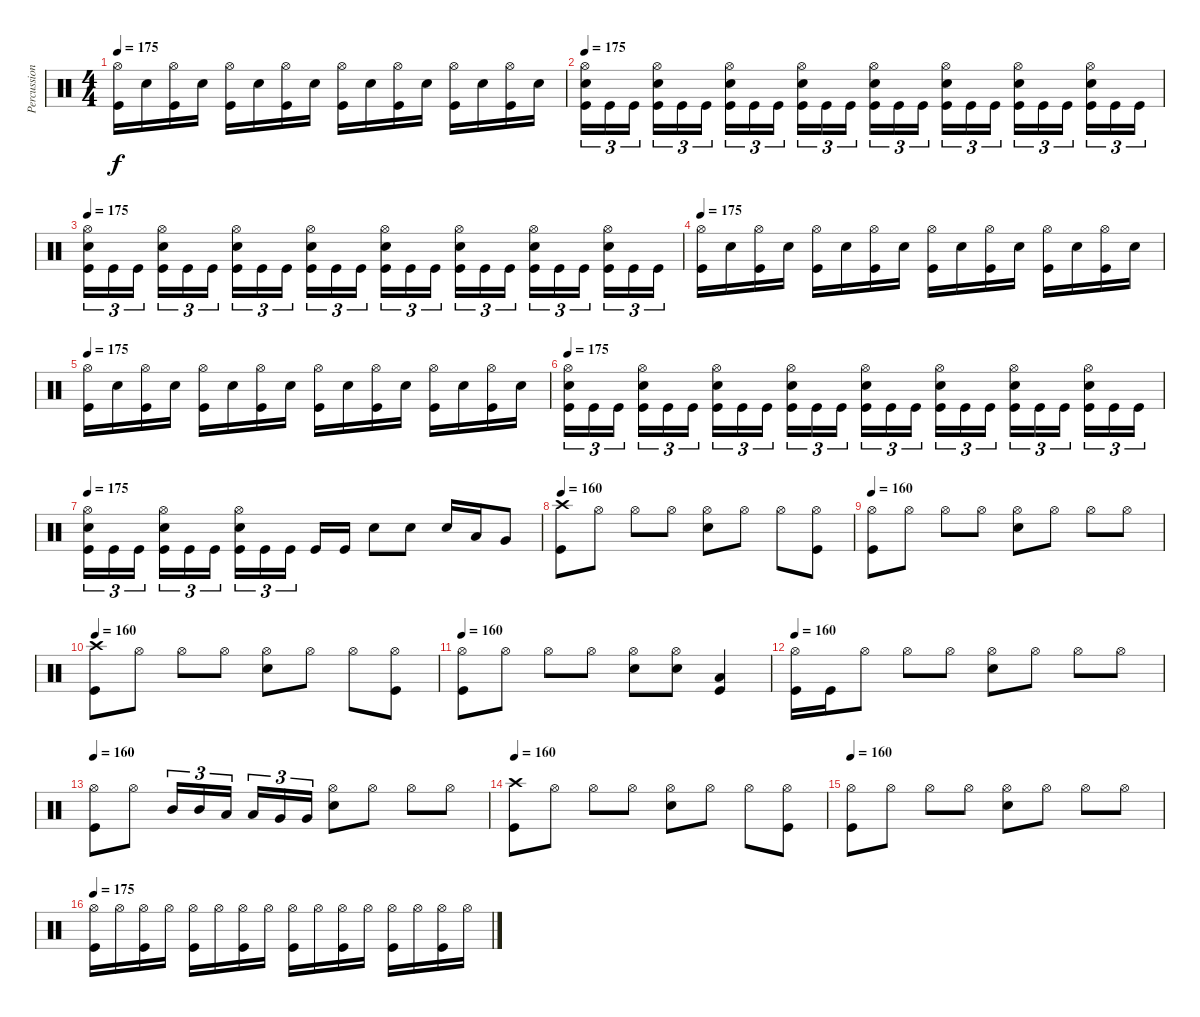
\track ("Percussion" "Percussion") {instrument percussion}
\staff {score}
\articulation defaults
\ts (4 4)
\tempo 175
\clef neutral
\ks c
("Hi-Hat (open)" "Kick (hit)").16{dy f} "Electric Snare (hit)".16 ("Hi-Hat (open)" "Kick (hit)").16 "Electric Snare (hit)".16 ("Hi-Hat (open)" "Kick (hit)").16 "Electric Snare (hit)".16 ("Hi-Hat (open)" "Kick (hit)").16 "Electric Snare (hit)".16 ("Hi-Hat (open)" "Kick (hit)").16 "Electric Snare (hit)".16 ("Hi-Hat (open)" "Kick (hit)").16 "Electric Snare (hit)".16 ("Hi-Hat (open)" "Kick (hit)").16 "Electric Snare (hit)".16 ("Hi-Hat (open)" "Kick (hit)").16 "Electric Snare (hit)".16 |
\tempo 175
("Hi-Hat (open)" "Electric Snare (hit)" "Kick (hit)").16{tu (3 2)} "Kick (hit)".16{tu (3 2)} "Kick (hit)".16{tu (3 2)} ("Hi-Hat (open)" "Electric Snare (hit)" "Kick (hit)").16{tu (3 2)} "Kick (hit)".16{tu (3 2)} "Kick (hit)".16{tu (3 2)} ("Hi-Hat (open)" "Electric Snare (hit)" "Kick (hit)").16{tu (3 2)} "Kick (hit)".16{tu (3 2)} "Kick (hit)".16{tu (3 2)} ("Hi-Hat (open)" "Electric Snare (hit)" "Kick (hit)").16{tu (3 2)} "Kick (hit)".16{tu (3 2)} "Kick (hit)".16{tu (3 2)} ("Hi-Hat (open)" "Electric Snare (hit)" "Kick (hit)").16{tu (3 2)} "Kick (hit)".16{tu (3 2)} "Kick (hit)".16{tu (3 2)} ("Hi-Hat (open)" "Electric Snare (hit)" "Kick (hit)").16{tu (3 2)} "Kick (hit)".16{tu (3 2)} "Kick (hit)".16{tu (3 2)} ("Hi-Hat (open)" "Electric Snare (hit)" "Kick (hit)").16{tu (3 2)} "Kick (hit)".16{tu (3 2)} "Kick (hit)".16{tu (3 2)} ("Hi-Hat (open)" "Electric Snare (hit)" "Kick (hit)").16{tu (3 2)} "Kick (hit)".16{tu (3 2)} "Kick (hit)".16{tu (3 2)} |
\tempo 175
("Hi-Hat (open)" "Electric Snare (hit)" "Kick (hit)").16{tu (3 2)} "Kick (hit)".16{tu (3 2)} "Kick (hit)".16{tu (3 2)} ("Hi-Hat (open)" "Electric Snare (hit)" "Kick (hit)").16{tu (3 2)} "Kick (hit)".16{tu (3 2)} "Kick (hit)".16{tu (3 2)} ("Hi-Hat (open)" "Electric Snare (hit)" "Kick (hit)").16{tu (3 2)} "Kick (hit)".16{tu (3 2)} "Kick (hit)".16{tu (3 2)} ("Hi-Hat (open)" "Electric Snare (hit)" "Kick (hit)").16{tu (3 2)} "Kick (hit)".16{tu (3 2)} "Kick (hit)".16{tu (3 2)} ("Hi-Hat (open)" "Electric Snare (hit)" "Kick (hit)").16{tu (3 2)} "Kick (hit)".16{tu (3 2)} "Kick (hit)".16{tu (3 2)} ("Hi-Hat (open)" "Electric Snare (hit)" "Kick (hit)").16{tu (3 2)} "Kick (hit)".16{tu (3 2)} "Kick (hit)".16{tu (3 2)} ("Hi-Hat (open)" "Electric Snare (hit)" "Kick (hit)").16{tu (3 2)} "Kick (hit)".16{tu (3 2)} "Kick (hit)".16{tu (3 2)} ("Hi-Hat (open)" "Electric Snare (hit)" "Kick (hit)").16{tu (3 2)} "Kick (hit)".16{tu (3 2)} "Kick (hit)".16{tu (3 2)} |
\tempo 175
("Hi-Hat (open)" "Kick (hit)").16 "Electric Snare (hit)".16 ("Hi-Hat (open)" "Kick (hit)").16 "Electric Snare (hit)".16 ("Hi-Hat (open)" "Kick (hit)").16 "Electric Snare (hit)".16 ("Hi-Hat (open)" "Kick (hit)").16 "Electric Snare (hit)".16 ("Hi-Hat (open)" "Kick (hit)").16 "Electric Snare (hit)".16 ("Hi-Hat (open)" "Kick (hit)").16 "Electric Snare (hit)".16 ("Hi-Hat (open)" "Kick (hit)").16 "Electric Snare (hit)".16 ("Hi-Hat (open)" "Kick (hit)").16 "Electric Snare (hit)".16 |
\tempo 175
("Hi-Hat (open)" "Kick (hit)").16 "Electric Snare (hit)".16 ("Hi-Hat (open)" "Kick (hit)").16 "Electric Snare (hit)".16 ("Hi-Hat (open)" "Kick (hit)").16 "Electric Snare (hit)".16 ("Hi-Hat (open)" "Kick (hit)").16 "Electric Snare (hit)".16 ("Hi-Hat (open)" "Kick (hit)").16 "Electric Snare (hit)".16 ("Hi-Hat (open)" "Kick (hit)").16 "Electric Snare (hit)".16 ("Hi-Hat (open)" "Kick (hit)").16 "Electric Snare (hit)".16 ("Hi-Hat (open)" "Kick (hit)").16 "Electric Snare (hit)".16 |
\tempo 175
("Hi-Hat (open)" "Electric Snare (hit)" "Kick (hit)").16{tu (3 2)} "Kick (hit)".16{tu (3 2)} "Kick (hit)".16{tu (3 2)} ("Hi-Hat (open)" "Electric Snare (hit)" "Kick (hit)").16{tu (3 2)} "Kick (hit)".16{tu (3 2)} "Kick (hit)".16{tu (3 2)} ("Hi-Hat (open)" "Electric Snare (hit)" "Kick (hit)").16{tu (3 2)} "Kick (hit)".16{tu (3 2)} "Kick (hit)".16{tu (3 2)} ("Hi-Hat (open)" "Electric Snare (hit)" "Kick (hit)").16{tu (3 2)} "Kick (hit)".16{tu (3 2)} "Kick (hit)".16{tu (3 2)} ("Hi-Hat (open)" "Electric Snare (hit)" "Kick (hit)").16{tu (3 2)} "Kick (hit)".16{tu (3 2)} "Kick (hit)".16{tu (3 2)} ("Hi-Hat (open)" "Electric Snare (hit)" "Kick (hit)").16{tu (3 2)} "Kick (hit)".16{tu (3 2)} "Kick (hit)".16{tu (3 2)} ("Hi-Hat (open)" "Electric Snare (hit)" "Kick (hit)").16{tu (3 2)} "Kick (hit)".16{tu (3 2)} "Kick (hit)".16{tu (3 2)} ("Hi-Hat (open)" "Electric Snare (hit)" "Kick (hit)").16{tu (3 2)} "Kick (hit)".16{tu (3 2)} "Kick (hit)".16{tu (3 2)} |
\tempo 175
("Hi-Hat (open)" "Electric Snare (hit)" "Kick (hit)").16{tu (3 2)} "Kick (hit)".16{tu (3 2)} "Kick (hit)".16{tu (3 2)} ("Hi-Hat (open)" "Electric Snare (hit)" "Kick (hit)").16{tu (3 2)} "Kick (hit)".16{tu (3 2)} "Kick (hit)".16{tu (3 2)} ("Hi-Hat (open)" "Electric Snare (hit)" "Kick (hit)").16{tu (3 2)} "Kick (hit)".16{tu (3 2)} "Kick (hit)".16{tu (3 2)} "Kick (hit)".16 "Kick (hit)".16 "Electric Snare (hit)".8 "Electric Snare (hit)".8 "Electric Snare (hit)".16 "Low Tom (hit)".16 "Very Low Tom (hit)".8 |
\tempo 160
("Crash high (hit)" "Kick (hit)").8 "Hi-Hat (open)".8 "Hi-Hat (open)".8 "Hi-Hat (open)".8 ("Hi-Hat (open)" "Electric Snare (hit)").8 "Hi-Hat (open)".8 "Hi-Hat (open)".8 ("Hi-Hat (open)" "Kick (hit)").8 |
\tempo 160
("Hi-Hat (open)" "Kick (hit)").8 "Hi-Hat (open)".8 "Hi-Hat (open)".8 "Hi-Hat (open)".8 ("Hi-Hat (open)" "Electric Snare (hit)").8 "Hi-Hat (open)".8 "Hi-Hat (open)".8 "Hi-Hat (open)".8 |
\tempo 160
("Crash high (hit)" "Kick (hit)").8 "Hi-Hat (open)".8 "Hi-Hat (open)".8 "Hi-Hat (open)".8 ("Hi-Hat (open)" "Electric Snare (hit)").8 "Hi-Hat (open)".8 "Hi-Hat (open)".8 ("Hi-Hat (open)" "Kick (hit)").8 |
\tempo 160
("Hi-Hat (open)" "Kick (hit)").8 "Hi-Hat (open)".8 "Hi-Hat (open)".8 "Hi-Hat (open)".8 ("Hi-Hat (open)" "Electric Snare (hit)").8 ("Hi-Hat (open)" "Electric Snare (hit)").8 ("Low Floor Tom (hit)" "Kick (hit)").4 |
\tempo 160
("Hi-Hat (open)" "Kick (hit)").16 "Kick (hit)".16 "Hi-Hat (open)".8 "Hi-Hat (open)".8 "Hi-Hat (open)".8 ("Hi-Hat (open)" "Electric Snare (hit)").8 "Hi-Hat (open)".8 "Hi-Hat (open)".8 "Hi-Hat (open)".8 |
\tempo 160
("Hi-Hat (open)" "Kick (hit)").8 "Hi-Hat (open)".8 "Mid Tom (hit)".16{tu (3 2)} "Mid Tom (hit)".16{tu (3 2)} "Low Tom (hit)".16{tu (3 2)} "Low Tom (hit)".16{tu (3 2)} "Very Low Tom (hit)".16{tu (3 2)} "Very Low Tom (hit)".16{tu (3 2)} ("Hi-Hat (open)" "Electric Snare (hit)").8 "Hi-Hat (open)".8 "Hi-Hat (open)".8 "Hi-Hat (open)".8 |
\tempo 160
("Crash high (hit)" "Kick (hit)").8 "Hi-Hat (open)".8 "Hi-Hat (open)".8 "Hi-Hat (open)".8 ("Hi-Hat (open)" "Electric Snare (hit)").8 "Hi-Hat (open)".8 "Hi-Hat (open)".8 ("Hi-Hat (open)" "Kick (hit)").8 |
\tempo 160
("Hi-Hat (open)" "Kick (hit)").8 "Hi-Hat (open)".8 "Hi-Hat (open)".8 "Hi-Hat (open)".8 ("Hi-Hat (open)" "Electric Snare (hit)").8 "Hi-Hat (open)".8 "Hi-Hat (open)".8 "Hi-Hat (open)".8 |
\tempo 175
("Hi-Hat (open)" "Kick (hit)").16 "Hi-Hat (open)".16 ("Hi-Hat (open)" "Kick (hit)").16 "Hi-Hat (open)".16 ("Hi-Hat (open)" "Kick (hit)").16 "Hi-Hat (open)".16 ("Hi-Hat (open)" "Kick (hit)").16 "Hi-Hat (open)".16 ("Hi-Hat (open)" "Kick (hit)").16 "Hi-Hat (open)".16 ("Hi-Hat (open)" "Kick (hit)").16 "Hi-Hat (open)".16 ("Hi-Hat (open)" "Kick (hit)").16 "Hi-Hat (open)".16 ("Hi-Hat (open)" "Kick (hit)").16 "Hi-Hat (open)".16
